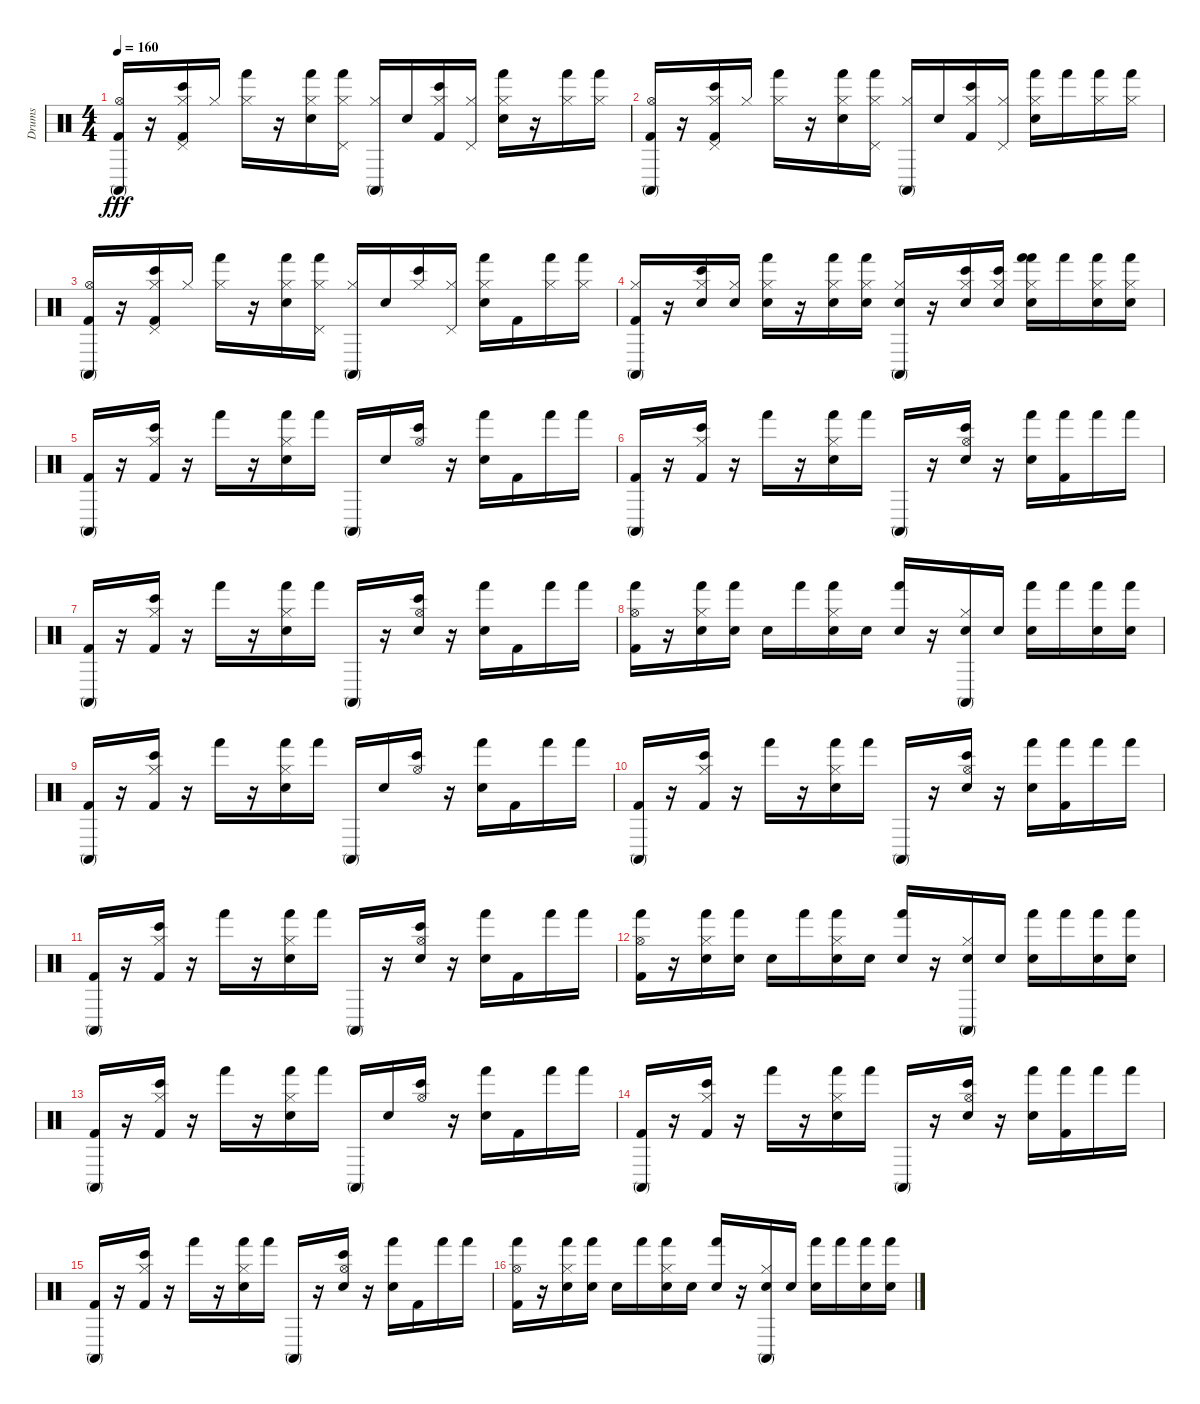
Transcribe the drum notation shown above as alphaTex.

\track ("Drums" "Drums") {instrument percussion}
\staff {score}
\articulation defaults
\ts (4 4)
\tempo 160
\clef neutral
\ks c
("Conga high (mute)" "Hi-Hat (open)" "Kick (hit) 2").16{dy fff} r.16 ("Kick (hit) 2" "Pedal Hi-Hat (hit)" "Hi-Hat (closed)" "Bongo High (hit)").16 "Hi-Hat (closed)".16 ("Hi-Hat (closed)" "Hand (hit)").16 r.16 ("Hand (hit)" "Electric Snare (hit)" "Hi-Hat (closed)").16 ("Hand (hit)" "Pedal Hi-Hat (hit)" "Hi-Hat (closed)").16 ("Hi-Hat (closed)" "Conga high (mute)").16 "Electric Snare (hit)".16 ("Hi-Hat (closed)" "Kick (hit) 2" "Bongo High (hit)").16 ("Hi-Hat (closed)" "Pedal Hi-Hat (hit)").16 ("Hand (hit)" "Electric Snare (hit)" "Hi-Hat (closed)").16 r.16 ("Hand (hit)" "Hi-Hat (closed)").16 ("Hand (hit)" "Hi-Hat (closed)").16 |
("Kick (hit) 2" "Hi-Hat (open)" "Conga high (mute)").16 r.16 ("Pedal Hi-Hat (hit)" "Kick (hit) 2" "Bongo High (hit)" "Hi-Hat (closed)").16 "Hi-Hat (closed)".16 ("Hi-Hat (closed)" "Hand (hit)").16 r.16 ("Hi-Hat (closed)" "Electric Snare (hit)" "Hand (hit)").16 ("Hand (hit)" "Pedal Hi-Hat (hit)" "Hi-Hat (closed)").16 ("Conga high (mute)" "Hi-Hat (closed)").16 "Electric Snare (hit)".16 ("Bongo High (hit)" "Hi-Hat (closed)" "Kick (hit) 2").16 ("Pedal Hi-Hat (hit)" "Hi-Hat (closed)").16 ("Hand (hit)" "Hi-Hat (closed)" "Electric Snare (hit)").16 "Hand (hit)".16 ("Hand (hit)" "Hi-Hat (closed)").16 ("Hi-Hat (closed)" "Hand (hit)").16 |
("Hi-Hat (open)" "Kick (hit) 2" "Conga high (mute)").16 r.16 ("Pedal Hi-Hat (hit)" "Bongo High (hit)" "Hi-Hat (closed)" "Kick (hit) 2").16 "Hi-Hat (closed)".16 ("Hi-Hat (closed)" "Hand (hit)").16 r.16 ("Hi-Hat (closed)" "Electric Snare (hit)" "Hand (hit)").16 ("Hand (hit)" "Hi-Hat (closed)" "Pedal Hi-Hat (hit)").16 ("Hi-Hat (closed)" "Conga high (mute)").16 "Electric Snare (hit)".16 ("Hi-Hat (closed)" "Bongo High (hit)").16 ("Pedal Hi-Hat (hit)" "Hi-Hat (closed)").16 ("Electric Snare (hit)" "Hand (hit)" "Hi-Hat (closed)").16 "Kick (hit) 2".16 ("Hi-Hat (closed)" "Hand (hit)").16 ("Hand (hit)" "Hi-Hat (closed)").16 |
("Kick (hit) 2" "Conga high (mute)" "Hi-Hat (closed)").16 r.16 ("Electric Snare (hit)" "Hi-Hat (closed)" "Bongo High (hit)").16 ("Electric Snare (hit)" "Hi-Hat (closed)").16 ("Hand (hit)" "Electric Snare (hit)" "Hi-Hat (closed)").16 r.16 ("Electric Snare (hit)" "Hand (hit)" "Hi-Hat (closed)").16 ("Hand (hit)" "Electric Snare (hit)" "Hi-Hat (closed)").16 ("Conga high (mute)" "Hi-Hat (closed)" "Electric Snare (hit)").16 r.16 ("Electric Snare (hit)" "Bongo High (hit)" "Hi-Hat (closed)").16 ("Bongo High (hit)" "Electric Snare (hit)" "Hi-Hat (closed)").16 ("Hand (hit)" "Hi-Hat (closed)" "Hand (hit)" "Electric Snare (hit)").16 "Hand (hit)".16 ("Hand (hit)" "Electric Snare (hit)" "Hi-Hat (closed)").16 ("Hand (hit)" "Hi-Hat (closed)" "Electric Snare (hit)").16 |
("Kick (hit) 2" "Conga high (mute)").16 r.16 ("Bongo High (hit)" "Kick (hit) 2" "Hi-Hat (closed)").16 r.16 "Hand (hit)".16 r.16 ("Electric Snare (hit)" "Hand (hit)" "Hi-Hat (closed)").16 "Hand (hit)".16 "Conga high (mute)".16 "Electric Snare (hit)".16 ("Bongo High (hit)" "Hi-Hat (open)").16 r.16 ("Hand (hit)" "Electric Snare (hit)").16 "Kick (hit) 2".16 "Hand (hit)".16 "Hand (hit)".16 |
("Conga high (mute)" "Kick (hit) 2").16 r.16 ("Kick (hit) 2" "Bongo High (hit)" "Hi-Hat (closed)").16 r.16 "Hand (hit)".16 r.16 ("Electric Snare (hit)" "Hi-Hat (closed)" "Hand (hit)").16 "Hand (hit)".16 "Conga high (mute)".16 r.16 ("Electric Snare (hit)" "Hi-Hat (open)" "Bongo High (hit)").16 r.16 ("Hand (hit)" "Electric Snare (hit)").16 ("Hand (hit)" "Kick (hit) 2").16 "Hand (hit)".16 "Hand (hit)".16 |
("Conga high (mute)" "Kick (hit) 2").16 r.16 ("Bongo High (hit)" "Hi-Hat (closed)" "Kick (hit) 2").16 r.16 "Hand (hit)".16 r.16 ("Electric Snare (hit)" "Hi-Hat (closed)" "Hand (hit)").16 "Hand (hit)".16 "Conga high (mute)".16 r.16 ("Bongo High (hit)" "Electric Snare (hit)" "Hi-Hat (open)").16 r.16 ("Electric Snare (hit)" "Hand (hit)").16 "Kick (hit) 2".16 "Hand (hit)".16 "Hand (hit)".16 |
("Hand (hit)" "Hi-Hat (open)" "Kick (hit) 2").16 r.16 ("Hi-Hat (closed)" "Electric Snare (hit)" "Hand (hit)").16 ("Electric Snare (hit)" "Hand (hit)").16 "Electric Snare (hit)".16 "Hand (hit)".16 ("Hand (hit)" "Electric Snare (hit)" "Hi-Hat (closed)").16 "Electric Snare (hit)".16 ("Electric Snare (hit)" "Hand (hit)").16 r.16 ("Hi-Hat (closed)" "Electric Snare (hit)" "Conga high (mute)").16 "Electric Snare (hit)".16 ("Hand (hit)" "Electric Snare (hit)").16 "Hand (hit)".16 ("Electric Snare (hit)" "Hand (hit)").16 ("Electric Snare (hit)" "Hand (hit)").16 |
("Kick (hit) 2" "Conga high (mute)").16 r.16 ("Hi-Hat (closed)" "Bongo High (hit)" "Kick (hit) 2").16 r.16 "Hand (hit)".16 r.16 ("Hi-Hat (closed)" "Electric Snare (hit)" "Hand (hit)").16 "Hand (hit)".16 "Conga high (mute)".16 "Electric Snare (hit)".16 ("Bongo High (hit)" "Hi-Hat (open)").16 r.16 ("Hand (hit)" "Electric Snare (hit)").16 "Kick (hit) 2".16 "Hand (hit)".16 "Hand (hit)".16 |
("Kick (hit) 2" "Conga high (mute)").16 r.16 ("Bongo High (hit)" "Kick (hit) 2" "Hi-Hat (closed)").16 r.16 "Hand (hit)".16 r.16 ("Hand (hit)" "Electric Snare (hit)" "Hi-Hat (closed)").16 "Hand (hit)".16 "Conga high (mute)".16 r.16 ("Electric Snare (hit)" "Hi-Hat (open)" "Bongo High (hit)").16 r.16 ("Hand (hit)" "Electric Snare (hit)").16 ("Hand (hit)" "Kick (hit) 2").16 "Hand (hit)".16 "Hand (hit)".16 |
("Kick (hit) 2" "Conga high (mute)").16 r.16 ("Kick (hit) 2" "Bongo High (hit)" "Hi-Hat (closed)").16 r.16 "Hand (hit)".16 r.16 ("Hi-Hat (closed)" "Electric Snare (hit)" "Hand (hit)").16 "Hand (hit)".16 "Conga high (mute)".16 r.16 ("Hi-Hat (open)" "Bongo High (hit)" "Electric Snare (hit)").16 r.16 ("Electric Snare (hit)" "Hand (hit)").16 "Kick (hit) 2".16 "Hand (hit)".16 "Hand (hit)".16 |
("Kick (hit) 2" "Hand (hit)" "Hi-Hat (open)").16 r.16 ("Electric Snare (hit)" "Hi-Hat (closed)" "Hand (hit)").16 ("Hand (hit)" "Electric Snare (hit)").16 "Electric Snare (hit)".16 "Hand (hit)".16 ("Hi-Hat (closed)" "Electric Snare (hit)" "Hand (hit)").16 "Electric Snare (hit)".16 ("Hand (hit)" "Electric Snare (hit)").16 r.16 ("Electric Snare (hit)" "Hi-Hat (closed)" "Conga high (mute)").16 "Electric Snare (hit)".16 ("Electric Snare (hit)" "Hand (hit)").16 "Hand (hit)".16 ("Hand (hit)" "Electric Snare (hit)").16 ("Hand (hit)" "Electric Snare (hit)").16 |
("Kick (hit) 2" "Conga high (mute)").16 r.16 ("Bongo High (hit)" "Kick (hit) 2" "Hi-Hat (closed)").16 r.16 "Hand (hit)".16 r.16 ("Hi-Hat (closed)" "Electric Snare (hit)" "Hand (hit)").16 "Hand (hit)".16 "Conga high (mute)".16 "Electric Snare (hit)".16 ("Bongo High (hit)" "Hi-Hat (open)").16 r.16 ("Hand (hit)" "Electric Snare (hit)").16 "Kick (hit) 2".16 "Hand (hit)".16 "Hand (hit)".16 |
("Kick (hit) 2" "Conga high (mute)").16 r.16 ("Bongo High (hit)" "Kick (hit) 2" "Hi-Hat (closed)").16 r.16 "Hand (hit)".16 r.16 ("Hi-Hat (closed)" "Electric Snare (hit)" "Hand (hit)").16 "Hand (hit)".16 "Conga high (mute)".16 r.16 ("Hi-Hat (open)" "Electric Snare (hit)" "Bongo High (hit)").16 r.16 ("Electric Snare (hit)" "Hand (hit)").16 ("Kick (hit) 2" "Hand (hit)").16 "Hand (hit)".16 "Hand (hit)".16 |
("Kick (hit) 2" "Conga high (mute)").16 r.16 ("Bongo High (hit)" "Kick (hit) 2" "Hi-Hat (closed)").16 r.16 "Hand (hit)".16 r.16 ("Hand (hit)" "Hi-Hat (closed)" "Electric Snare (hit)").16 "Hand (hit)".16 "Conga high (mute)".16 r.16 ("Bongo High (hit)" "Hi-Hat (open)" "Electric Snare (hit)").16 r.16 ("Electric Snare (hit)" "Hand (hit)").16 "Kick (hit) 2".16 "Hand (hit)".16 "Hand (hit)".16 |
("Hi-Hat (open)" "Kick (hit) 2" "Hand (hit)").16 r.16 ("Electric Snare (hit)" "Hi-Hat (closed)" "Hand (hit)").16 ("Hand (hit)" "Electric Snare (hit)").16 "Electric Snare (hit)".16 "Hand (hit)".16 ("Hi-Hat (closed)" "Hand (hit)" "Electric Snare (hit)").16 "Electric Snare (hit)".16 ("Hand (hit)" "Electric Snare (hit)").16 r.16 ("Electric Snare (hit)" "Conga high (mute)" "Hi-Hat (closed)").16 "Electric Snare (hit)".16 ("Electric Snare (hit)" "Hand (hit)").16 "Hand (hit)".16 ("Electric Snare (hit)" "Hand (hit)").16 ("Electric Snare (hit)" "Hand (hit)").16
